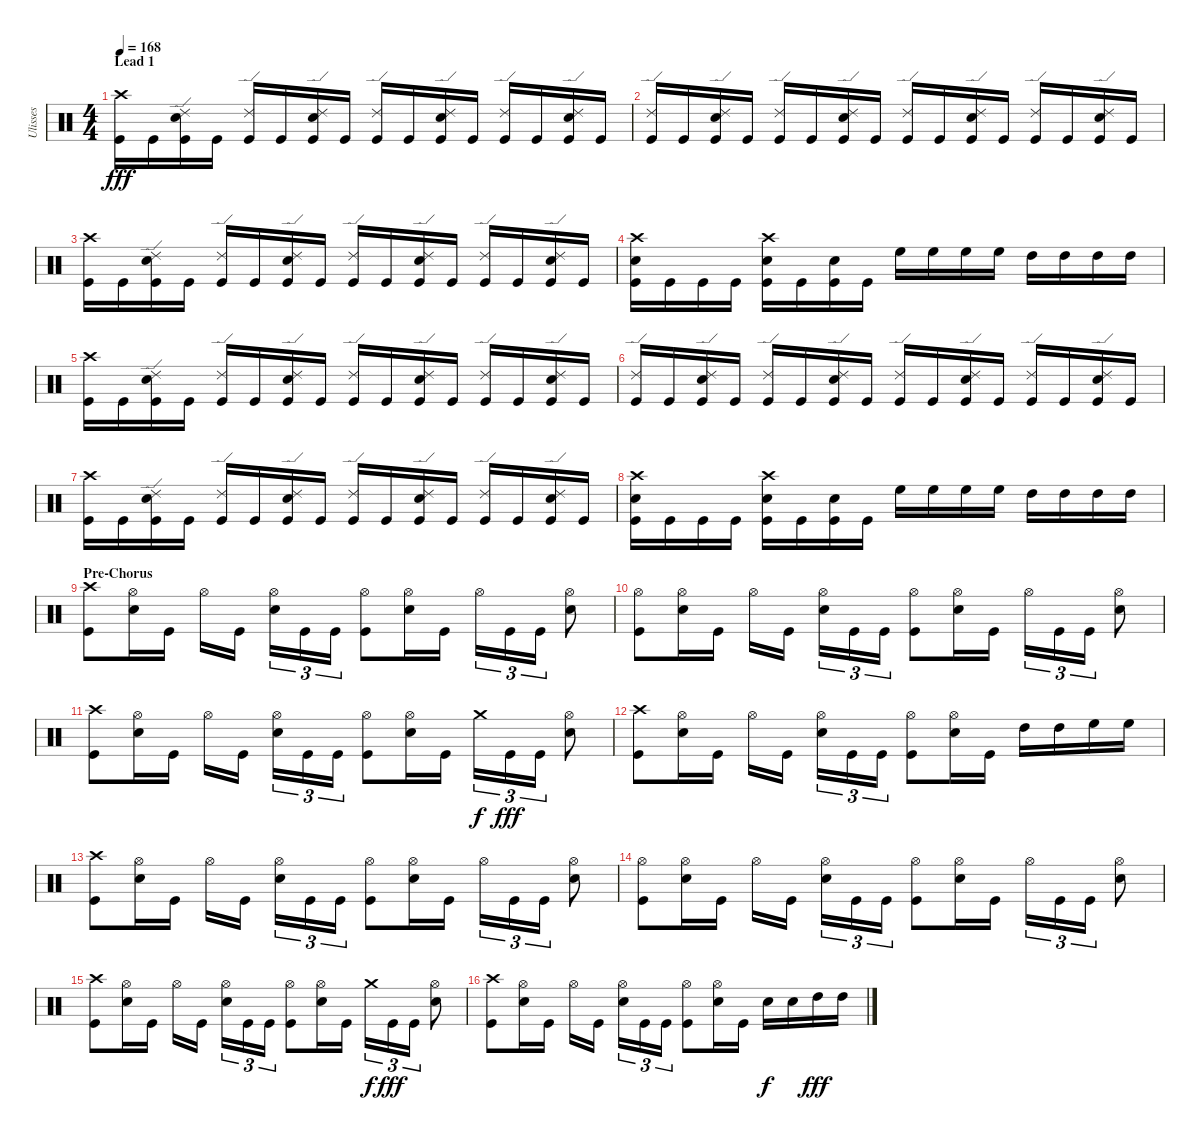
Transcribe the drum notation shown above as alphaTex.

\track ("Ulisses" "Ulisses") {instrument percussion}
\staff {score}
\articulation defaults
\ts (4 4)
\section ("" "Lead 1")
\tempo 168
\clef neutral
\ks c
("Crash high (hit)" "Kick (hit)").16{dy fff} "Kick (hit)".16 ("Ride (edge) 2" "Snare (hit) 2" "Kick (hit)").16 "Kick (hit)".16 ("Ride (edge) 2" "Kick (hit)").16 "Kick (hit)".16 ("Ride (edge) 2" "Snare (hit) 2" "Kick (hit)").16 "Kick (hit)".16 ("Ride (edge) 2" "Kick (hit)").16 "Kick (hit)".16 ("Ride (edge) 2" "Snare (hit) 2" "Kick (hit)").16 "Kick (hit)".16 ("Ride (edge) 2" "Kick (hit)").16 "Kick (hit)".16 ("Ride (edge) 2" "Snare (hit) 2" "Kick (hit)").16 "Kick (hit)".16 |
("Ride (edge) 2" "Kick (hit)").16 "Kick (hit)".16 ("Ride (edge) 2" "Snare (hit) 2" "Kick (hit)").16 "Kick (hit)".16 ("Ride (edge) 2" "Kick (hit)").16 "Kick (hit)".16 ("Ride (edge) 2" "Snare (hit) 2" "Kick (hit)").16 "Kick (hit)".16 ("Ride (edge) 2" "Kick (hit)").16 "Kick (hit)".16 ("Ride (edge) 2" "Snare (hit) 2" "Kick (hit)").16 "Kick (hit)".16 ("Ride (edge) 2" "Kick (hit)").16 "Kick (hit)".16 ("Ride (edge) 2" "Snare (hit) 2" "Kick (hit)").16 "Kick (hit)".16 |
("Crash high (hit)" "Kick (hit)").16 "Kick (hit)".16 ("Ride (edge) 2" "Snare (hit) 2" "Kick (hit)").16 "Kick (hit)".16 ("Ride (edge) 2" "Kick (hit)").16 "Kick (hit)".16 ("Ride (edge) 2" "Snare (hit) 2" "Kick (hit)").16 "Kick (hit)".16 ("Ride (edge) 2" "Kick (hit)").16 "Kick (hit)".16 ("Ride (edge) 2" "Snare (hit) 2" "Kick (hit)").16 "Kick (hit)".16 ("Ride (edge) 2" "Kick (hit)").16 "Kick (hit)".16 ("Ride (edge) 2" "Snare (hit) 2" "Kick (hit)").16 "Kick (hit)".16 |
("Crash high (hit)" "Snare (hit) 2" "Kick (hit)").16 "Kick (hit)".16 "Kick (hit)".16 "Kick (hit)".16 ("Crash high (hit)" "Snare (hit) 2" "Kick (hit)").16 "Kick (hit)".16 ("Snare (hit) 2" "Kick (hit)").16 "Kick (hit)".16 "High Floor Tom (hit)".16 "High Floor Tom (hit)".16 "High Floor Tom (hit)".16 "High Floor Tom (hit)".16 "High Tom (hit)".16 "High Tom (hit)".16 "High Tom (hit)".16 "High Tom (hit)".16 |
("Crash high (hit)" "Kick (hit)").16 "Kick (hit)".16 ("Ride (edge) 2" "Snare (hit) 2" "Kick (hit)").16 "Kick (hit)".16 ("Ride (edge) 2" "Kick (hit)").16 "Kick (hit)".16 ("Ride (edge) 2" "Snare (hit) 2" "Kick (hit)").16 "Kick (hit)".16 ("Ride (edge) 2" "Kick (hit)").16 "Kick (hit)".16 ("Ride (edge) 2" "Snare (hit) 2" "Kick (hit)").16 "Kick (hit)".16 ("Ride (edge) 2" "Kick (hit)").16 "Kick (hit)".16 ("Ride (edge) 2" "Snare (hit) 2" "Kick (hit)").16 "Kick (hit)".16 |
("Ride (edge) 2" "Kick (hit)").16 "Kick (hit)".16 ("Ride (edge) 2" "Snare (hit) 2" "Kick (hit)").16 "Kick (hit)".16 ("Ride (edge) 2" "Kick (hit)").16 "Kick (hit)".16 ("Ride (edge) 2" "Snare (hit) 2" "Kick (hit)").16 "Kick (hit)".16 ("Ride (edge) 2" "Kick (hit)").16 "Kick (hit)".16 ("Ride (edge) 2" "Snare (hit) 2" "Kick (hit)").16 "Kick (hit)".16 ("Ride (edge) 2" "Kick (hit)").16 "Kick (hit)".16 ("Ride (edge) 2" "Snare (hit) 2" "Kick (hit)").16 "Kick (hit)".16 |
("Crash high (hit)" "Kick (hit)").16 "Kick (hit)".16 ("Ride (edge) 2" "Snare (hit) 2" "Kick (hit)").16 "Kick (hit)".16 ("Ride (edge) 2" "Kick (hit)").16 "Kick (hit)".16 ("Ride (edge) 2" "Snare (hit) 2" "Kick (hit)").16 "Kick (hit)".16 ("Ride (edge) 2" "Kick (hit)").16 "Kick (hit)".16 ("Ride (edge) 2" "Snare (hit) 2" "Kick (hit)").16 "Kick (hit)".16 ("Ride (edge) 2" "Kick (hit)").16 "Kick (hit)".16 ("Ride (edge) 2" "Snare (hit) 2" "Kick (hit)").16 "Kick (hit)".16 |
("Crash high (hit)" "Snare (hit) 2" "Kick (hit)").16 "Kick (hit)".16 "Kick (hit)".16 "Kick (hit)".16 ("Crash high (hit)" "Snare (hit) 2" "Kick (hit)").16 "Kick (hit)".16 ("Snare (hit) 2" "Kick (hit)").16 "Kick (hit)".16 "High Floor Tom (hit)".16 "High Floor Tom (hit)".16 "High Floor Tom (hit)".16 "High Floor Tom (hit)".16 "High Tom (hit)".16 "High Tom (hit)".16 "High Tom (hit)".16 "High Tom (hit)".16 |
\section ("" "Pre-Chorus")
("Crash high (hit)" "Kick (hit)").8 ("Hi-Hat (open)" "Snare (hit) 2").16 "Kick (hit)".16 "Hi-Hat (open)".16 "Kick (hit)".16 ("Hi-Hat (open)" "Snare (hit) 2").16{tu (3 2)} "Kick (hit)".16{tu (3 2)} "Kick (hit)".16{tu (3 2)} ("Hi-Hat (open)" "Kick (hit)").8 ("Hi-Hat (open)" "Snare (hit) 2").16 "Kick (hit)".16 "Hi-Hat (open)".16{tu (3 2)} "Kick (hit)".16{tu (3 2)} "Kick (hit)".16{tu (3 2)} ("Hi-Hat (open)" "Snare (hit) 2").8 |
("Hi-Hat (open)" "Kick (hit)").8 ("Hi-Hat (open)" "Snare (hit) 2").16 "Kick (hit)".16 "Hi-Hat (open)".16 "Kick (hit)".16 ("Hi-Hat (open)" "Snare (hit) 2").16{tu (3 2)} "Kick (hit)".16{tu (3 2)} "Kick (hit)".16{tu (3 2)} ("Hi-Hat (open)" "Kick (hit)").8 ("Hi-Hat (open)" "Snare (hit) 2").16 "Kick (hit)".16 "Hi-Hat (open)".16{tu (3 2)} "Kick (hit)".16{tu (3 2)} "Kick (hit)".16{tu (3 2)} ("Hi-Hat (open)" "Snare (hit) 2").8 |
("Crash high (hit)" "Kick (hit)").8 ("Hi-Hat (open)" "Snare (hit) 2").16 "Kick (hit)".16 "Hi-Hat (open)".16 "Kick (hit)".16 ("Hi-Hat (open)" "Snare (hit) 2").16{tu (3 2)} "Kick (hit)".16{tu (3 2)} "Kick (hit)".16{tu (3 2)} ("Hi-Hat (open)" "Kick (hit)").8 ("Hi-Hat (open)" "Snare (hit) 2").16 "Kick (hit)".16 "Crash medium (hit)".16{tu (3 2) dy f} "Kick (hit)".16{tu (3 2) dy fff} "Kick (hit)".16{tu (3 2)} ("Hi-Hat (open)" "Snare (hit) 2").8 |
("Crash high (hit)" "Kick (hit)").8 ("Hi-Hat (open)" "Snare (hit) 2").16 "Kick (hit)".16 "Hi-Hat (open)".16 "Kick (hit)".16 ("Hi-Hat (open)" "Snare (hit) 2").16{tu (3 2)} "Kick (hit)".16{tu (3 2)} "Kick (hit)".16{tu (3 2)} ("Hi-Hat (open)" "Kick (hit)").8 ("Hi-Hat (open)" "Snare (hit) 2").16 "Kick (hit)".16 "High Tom (hit)".16 "High Tom (hit)".16 "High Floor Tom (hit)".16 "High Floor Tom (hit)".16 |
("Crash high (hit)" "Kick (hit)").8 ("Hi-Hat (open)" "Snare (hit) 2").16 "Kick (hit)".16 "Hi-Hat (open)".16 "Kick (hit)".16 ("Hi-Hat (open)" "Snare (hit) 2").16{tu (3 2)} "Kick (hit)".16{tu (3 2)} "Kick (hit)".16{tu (3 2)} ("Hi-Hat (open)" "Kick (hit)").8 ("Hi-Hat (open)" "Snare (hit) 2").16 "Kick (hit)".16 "Hi-Hat (open)".16{tu (3 2)} "Kick (hit)".16{tu (3 2)} "Kick (hit)".16{tu (3 2)} ("Hi-Hat (open)" "Snare (hit) 2").8 |
("Hi-Hat (open)" "Kick (hit)").8 ("Hi-Hat (open)" "Snare (hit) 2").16 "Kick (hit)".16 "Hi-Hat (open)".16 "Kick (hit)".16 ("Hi-Hat (open)" "Snare (hit) 2").16{tu (3 2)} "Kick (hit)".16{tu (3 2)} "Kick (hit)".16{tu (3 2)} ("Hi-Hat (open)" "Kick (hit)").8 ("Hi-Hat (open)" "Snare (hit) 2").16 "Kick (hit)".16 "Hi-Hat (open)".16{tu (3 2)} "Kick (hit)".16{tu (3 2)} "Kick (hit)".16{tu (3 2)} ("Hi-Hat (open)" "Snare (hit) 2").8 |
("Crash high (hit)" "Kick (hit)").8 ("Hi-Hat (open)" "Snare (hit) 2").16 "Kick (hit)".16 "Hi-Hat (open)".16 "Kick (hit)".16 ("Hi-Hat (open)" "Snare (hit) 2").16{tu (3 2)} "Kick (hit)".16{tu (3 2)} "Kick (hit)".16{tu (3 2)} ("Hi-Hat (open)" "Kick (hit)").8 ("Hi-Hat (open)" "Snare (hit) 2").16 "Kick (hit)".16 "Crash medium (hit)".16{tu (3 2) dy f} "Kick (hit)".16{tu (3 2) dy fff} "Kick (hit)".16{tu (3 2)} ("Hi-Hat (open)" "Snare (hit) 2").8 |
("Crash high (hit)" "Kick (hit)").8 ("Hi-Hat (open)" "Snare (hit) 2").16 "Kick (hit)".16 "Hi-Hat (open)".16 "Kick (hit)".16 ("Hi-Hat (open)" "Snare (hit) 2").16{tu (3 2)} "Kick (hit)".16{tu (3 2)} "Kick (hit)".16{tu (3 2)} ("Hi-Hat (open)" "Kick (hit)").8 ("Hi-Hat (open)" "Snare (hit) 2").16 "Kick (hit)".16 "Snare (hit) 2".16{dy f} "Snare (hit) 2".16 "High Tom (hit)".16{dy fff} "High Tom (hit)".16
